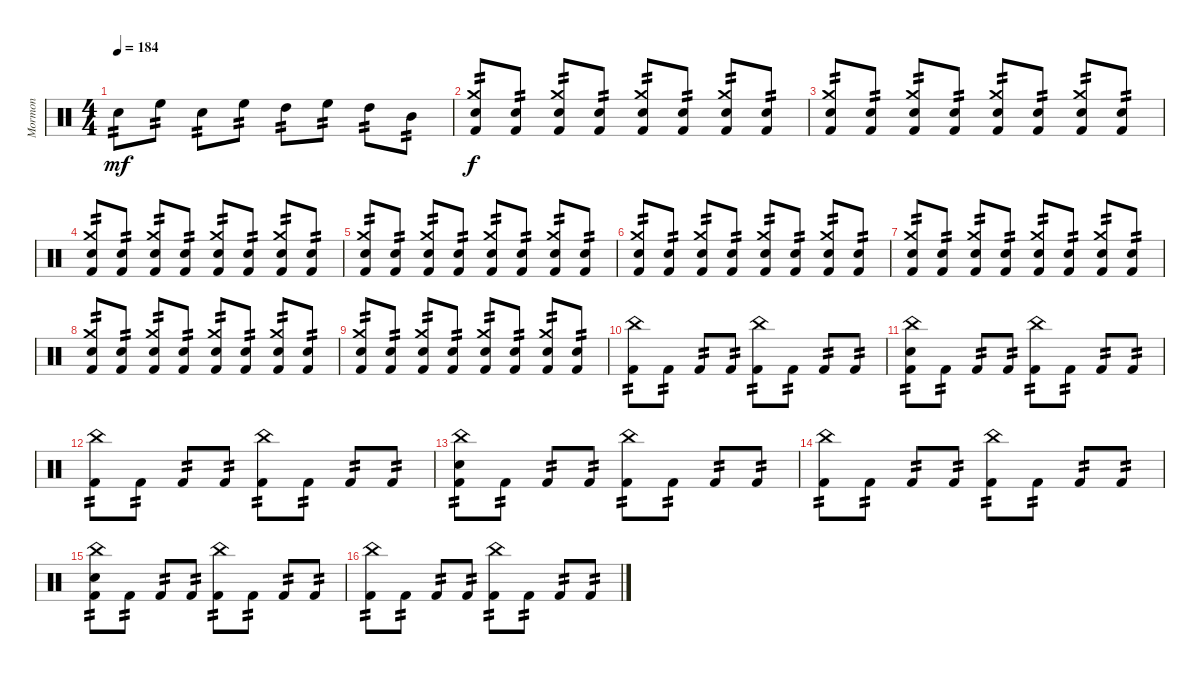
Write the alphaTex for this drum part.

\track ("Mormon" "Mormon") {solo instrument percussion}
\staff {score}
\articulation defaults
\ts (4 4)
\tempo 184
\clef neutral
\ks c "Snare (hit) 2".8{tp 2 dy mf} "High Floor Tom (hit)".8{tp 2} "Snare (hit) 2".8{tp 2} "High Floor Tom (hit)".8{tp 2} "High Tom (hit)".8{tp 2} "High Floor Tom (hit)".8{tp 2} "High Tom (hit)".8{tp 2} "Mid Tom (hit)".8{tp 2}
|
("Crash medium (hit)" "Snare (hit) 2" "Kick (hit) 2").8{tp 2 dy f} ("Snare (hit) 2" "Kick (hit) 2").8{tp 2} ("Crash medium (hit)" "Snare (hit) 2" "Kick (hit) 2").8{tp 2} ("Snare (hit) 2" "Kick (hit) 2").8{tp 2} ("Crash medium (hit)" "Snare (hit) 2" "Kick (hit) 2").8{tp 2} ("Snare (hit) 2" "Kick (hit) 2").8{tp 2} ("Crash medium (hit)" "Snare (hit) 2" "Kick (hit) 2").8{tp 2} ("Snare (hit) 2" "Kick (hit) 2").8{tp 2} |
("Crash medium (hit)" "Snare (hit) 2" "Kick (hit) 2").8{tp 2} ("Snare (hit) 2" "Kick (hit) 2").8{tp 2} ("Crash medium (hit)" "Snare (hit) 2" "Kick (hit) 2").8{tp 2} ("Snare (hit) 2" "Kick (hit) 2").8{tp 2} ("Crash medium (hit)" "Snare (hit) 2" "Kick (hit) 2").8{tp 2} ("Snare (hit) 2" "Kick (hit) 2").8{tp 2} ("Crash medium (hit)" "Snare (hit) 2" "Kick (hit) 2").8{tp 2} ("Snare (hit) 2" "Kick (hit) 2").8{tp 2} |
("Crash medium (hit)" "Snare (hit) 2" "Kick (hit) 2").8{tp 2} ("Snare (hit) 2" "Kick (hit) 2").8{tp 2} ("Crash medium (hit)" "Snare (hit) 2" "Kick (hit) 2").8{tp 2} ("Snare (hit) 2" "Kick (hit) 2").8{tp 2} ("Crash medium (hit)" "Snare (hit) 2" "Kick (hit) 2").8{tp 2} ("Snare (hit) 2" "Kick (hit) 2").8{tp 2} ("Crash medium (hit)" "Snare (hit) 2" "Kick (hit) 2").8{tp 2} ("Snare (hit) 2" "Kick (hit) 2").8{tp 2} |
("Crash medium (hit)" "Snare (hit) 2" "Kick (hit) 2").8{tp 2} ("Snare (hit) 2" "Kick (hit) 2").8{tp 2} ("Crash medium (hit)" "Snare (hit) 2" "Kick (hit) 2").8{tp 2} ("Snare (hit) 2" "Kick (hit) 2").8{tp 2} ("Crash medium (hit)" "Snare (hit) 2" "Kick (hit) 2").8{tp 2} ("Snare (hit) 2" "Kick (hit) 2").8{tp 2} ("Crash medium (hit)" "Snare (hit) 2" "Kick (hit) 2").8{tp 2} ("Snare (hit) 2" "Kick (hit) 2").8{tp 2} |
("Crash medium (hit)" "Snare (hit) 2" "Kick (hit) 2").8{tp 2} ("Snare (hit) 2" "Kick (hit) 2").8{tp 2} ("Crash medium (hit)" "Snare (hit) 2" "Kick (hit) 2").8{tp 2} ("Snare (hit) 2" "Kick (hit) 2").8{tp 2} ("Crash medium (hit)" "Snare (hit) 2" "Kick (hit) 2").8{tp 2} ("Snare (hit) 2" "Kick (hit) 2").8{tp 2} ("Crash medium (hit)" "Snare (hit) 2" "Kick (hit) 2").8{tp 2} ("Snare (hit) 2" "Kick (hit) 2").8{tp 2} |
("Crash medium (hit)" "Snare (hit) 2" "Kick (hit) 2").8{tp 2} ("Snare (hit) 2" "Kick (hit) 2").8{tp 2} ("Crash medium (hit)" "Snare (hit) 2" "Kick (hit) 2").8{tp 2} ("Snare (hit) 2" "Kick (hit) 2").8{tp 2} ("Crash medium (hit)" "Snare (hit) 2" "Kick (hit) 2").8{tp 2} ("Snare (hit) 2" "Kick (hit) 2").8{tp 2} ("Crash medium (hit)" "Snare (hit) 2" "Kick (hit) 2").8{tp 2} ("Snare (hit) 2" "Kick (hit) 2").8{tp 2} |
("Crash medium (hit)" "Snare (hit) 2" "Kick (hit) 2").8{tp 2} ("Snare (hit) 2" "Kick (hit) 2").8{tp 2} ("Crash medium (hit)" "Snare (hit) 2" "Kick (hit) 2").8{tp 2} ("Snare (hit) 2" "Kick (hit) 2").8{tp 2} ("Crash medium (hit)" "Snare (hit) 2" "Kick (hit) 2").8{tp 2} ("Snare (hit) 2" "Kick (hit) 2").8{tp 2} ("Crash medium (hit)" "Snare (hit) 2" "Kick (hit) 2").8{tp 2} ("Snare (hit) 2" "Kick (hit) 2").8{tp 2} |
("Crash medium (hit)" "Snare (hit) 2" "Kick (hit) 2").8{tp 2} ("Snare (hit) 2" "Kick (hit) 2").8{tp 2} ("Crash medium (hit)" "Snare (hit) 2" "Kick (hit) 2").8{tp 2} ("Snare (hit) 2" "Kick (hit) 2").8{tp 2} ("Crash medium (hit)" "Snare (hit) 2" "Kick (hit) 2").8{tp 2} ("Snare (hit) 2" "Kick (hit) 2").8{tp 2} ("Crash medium (hit)" "Snare (hit) 2" "Kick (hit) 2").8{tp 2} ("Snare (hit) 2" "Kick (hit) 2").8{tp 2} |
("China (hit)" "Kick (hit) 2").8{tp 2} "Kick (hit) 2".8{tp 2} "Kick (hit) 2".8{tp 2} "Kick (hit) 2".8{tp 2} ("China (hit)" "Kick (hit) 2").8{tp 2} "Kick (hit) 2".8{tp 2} "Kick (hit) 2".8{tp 2} "Kick (hit) 2".8{tp 2} |
("China (hit)" "Snare (hit) 2" "Kick (hit) 2").8{tp 2} "Kick (hit) 2".8{tp 2} "Kick (hit) 2".8{tp 2} "Kick (hit) 2".8{tp 2} ("China (hit)" "Kick (hit) 2").8{tp 2} "Kick (hit) 2".8{tp 2} "Kick (hit) 2".8{tp 2} "Kick (hit) 2".8{tp 2} |
("China (hit)" "Kick (hit) 2").8{tp 2} "Kick (hit) 2".8{tp 2} "Kick (hit) 2".8{tp 2} "Kick (hit) 2".8{tp 2} ("China (hit)" "Kick (hit) 2").8{tp 2} "Kick (hit) 2".8{tp 2} "Kick (hit) 2".8{tp 2} "Kick (hit) 2".8{tp 2} |
("China (hit)" "Snare (hit) 2" "Kick (hit) 2").8{tp 2} "Kick (hit) 2".8{tp 2} "Kick (hit) 2".8{tp 2} "Kick (hit) 2".8{tp 2} ("China (hit)" "Kick (hit) 2").8{tp 2} "Kick (hit) 2".8{tp 2} "Kick (hit) 2".8{tp 2} "Kick (hit) 2".8{tp 2} |
("China (hit)" "Kick (hit) 2").8{tp 2} "Kick (hit) 2".8{tp 2} "Kick (hit) 2".8{tp 2} "Kick (hit) 2".8{tp 2} ("China (hit)" "Kick (hit) 2").8{tp 2} "Kick (hit) 2".8{tp 2} "Kick (hit) 2".8{tp 2} "Kick (hit) 2".8{tp 2} |
("China (hit)" "Snare (hit) 2" "Kick (hit) 2").8{tp 2} "Kick (hit) 2".8{tp 2} "Kick (hit) 2".8{tp 2} "Kick (hit) 2".8{tp 2} ("China (hit)" "Kick (hit) 2").8{tp 2} "Kick (hit) 2".8{tp 2} "Kick (hit) 2".8{tp 2} "Kick (hit) 2".8{tp 2} |
("China (hit)" "Kick (hit) 2").8{tp 2} "Kick (hit) 2".8{tp 2} "Kick (hit) 2".8{tp 2} "Kick (hit) 2".8{tp 2} ("China (hit)" "Kick (hit) 2").8{tp 2} "Kick (hit) 2".8{tp 2} "Kick (hit) 2".8{tp 2} "Kick (hit) 2".8{tp 2}
